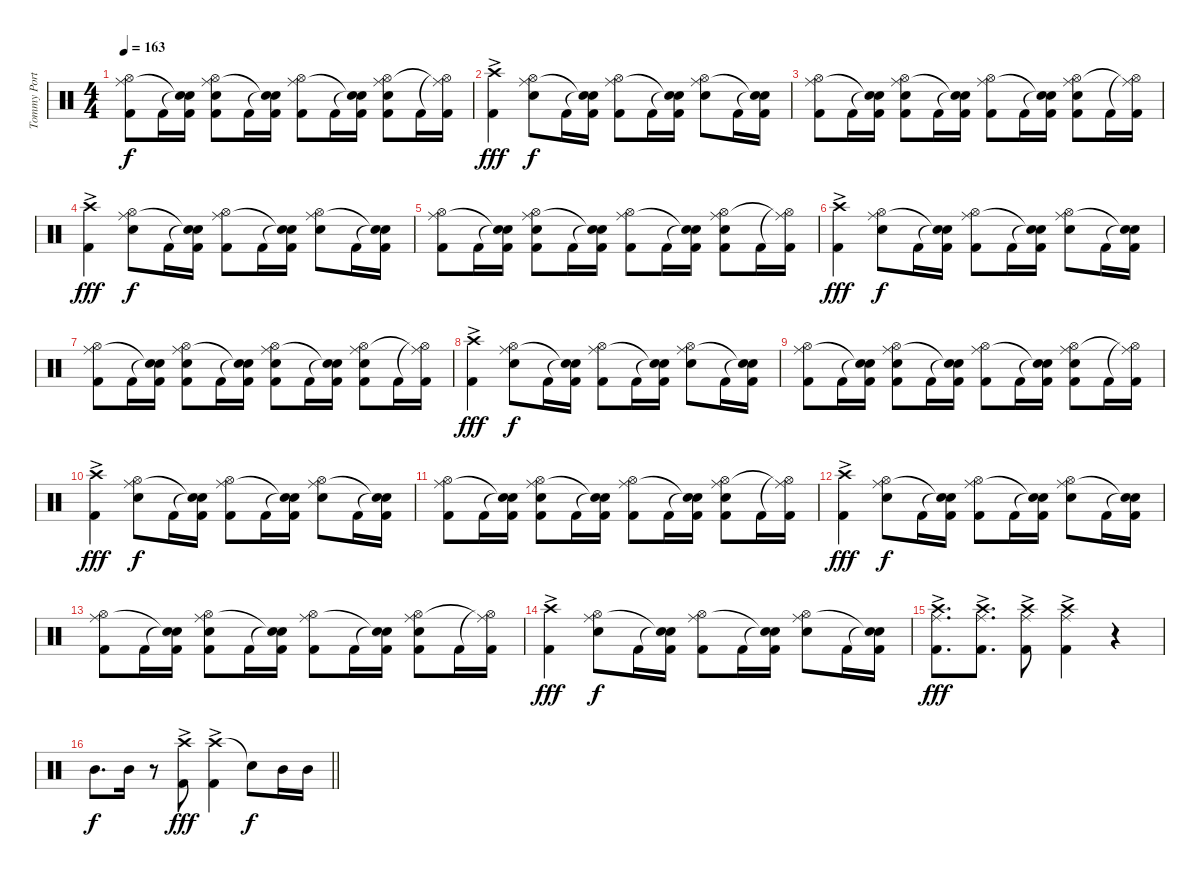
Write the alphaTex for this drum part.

\track ("Tommy Portimo" "Tommy Port") {instrument percussion}
\staff {score}
\articulation defaults
\ts (4 4)
\tempo 163
\clef neutral
\ks c
("Hi-Hat (open)" "Ride (middle)" "Kick (hit) 2").8{dy f} "Kick (hit) 2".16 ("Snare (hit)"{t} "Snare (hit)"{t} "Kick (hit) 2").16 ("Hi-Hat (open)" "Ride (middle)" "Electric Snare (hit)" "Kick (hit) 2").8 "Kick (hit) 2".16 ("Snare (hit)"{t} "Snare (hit)"{t} "Kick (hit) 2").16 ("Hi-Hat (open)" "Ride (middle)" "Kick (hit) 2").8 "Kick (hit) 2".16 ("Snare (hit)"{t} "Snare (hit)"{t} "Kick (hit) 2").16 ("Hi-Hat (open)" "Ride (middle)" "Electric Snare (hit)" "Kick (hit) 2").8 "Kick (hit) 2".16 ("Hi-Hat (open)"{t} "Ride (middle)"{t} "Kick (hit) 2").16 |
("Crash high (hit)"{ac} "Kick (hit) 2").4{dy fff} ("Hi-Hat (open)" "Ride (middle)" "Electric Snare (hit)").8{dy f} "Kick (hit) 2".16 ("Snare (hit)"{t} "Snare (hit)"{t} "Kick (hit) 2").16 ("Hi-Hat (open)" "Ride (middle)" "Kick (hit) 2").8 "Kick (hit) 2".16 ("Snare (hit)"{t} "Snare (hit)"{t} "Kick (hit) 2").16 ("Hi-Hat (open)" "Ride (middle)" "Electric Snare (hit)").8 "Kick (hit) 2".16 ("Snare (hit)"{t} "Snare (hit)"{t} "Kick (hit) 2").16 |
("Hi-Hat (open)" "Ride (middle)" "Kick (hit) 2").8 "Kick (hit) 2".16 ("Snare (hit)"{t} "Snare (hit)"{t} "Kick (hit) 2").16 ("Hi-Hat (open)" "Ride (middle)" "Electric Snare (hit)" "Kick (hit) 2").8 "Kick (hit) 2".16 ("Snare (hit)"{t} "Snare (hit)"{t} "Kick (hit) 2").16 ("Hi-Hat (open)" "Ride (middle)" "Kick (hit) 2").8 "Kick (hit) 2".16 ("Snare (hit)"{t} "Snare (hit)"{t} "Kick (hit) 2").16 ("Hi-Hat (open)" "Ride (middle)" "Electric Snare (hit)" "Kick (hit) 2").8 "Kick (hit) 2".16 ("Hi-Hat (open)"{t} "Ride (middle)"{t} "Kick (hit) 2").16 |
("Crash high (hit)"{ac} "Kick (hit) 2").4{dy fff} ("Hi-Hat (open)" "Ride (middle)" "Electric Snare (hit)").8{dy f} "Kick (hit) 2".16 ("Snare (hit)"{t} "Snare (hit)"{t} "Kick (hit) 2").16 ("Hi-Hat (open)" "Ride (middle)" "Kick (hit) 2").8 "Kick (hit) 2".16 ("Snare (hit)"{t} "Snare (hit)"{t} "Kick (hit) 2").16 ("Hi-Hat (open)" "Ride (middle)" "Electric Snare (hit)").8 "Kick (hit) 2".16 ("Snare (hit)"{t} "Snare (hit)"{t} "Kick (hit) 2").16 |
("Hi-Hat (open)" "Ride (middle)" "Kick (hit) 2").8 "Kick (hit) 2".16 ("Snare (hit)"{t} "Snare (hit)"{t} "Kick (hit) 2").16 ("Hi-Hat (open)" "Ride (middle)" "Electric Snare (hit)" "Kick (hit) 2").8 "Kick (hit) 2".16 ("Snare (hit)"{t} "Snare (hit)"{t} "Kick (hit) 2").16 ("Hi-Hat (open)" "Ride (middle)" "Kick (hit) 2").8 "Kick (hit) 2".16 ("Snare (hit)"{t} "Snare (hit)"{t} "Kick (hit) 2").16 ("Hi-Hat (open)" "Ride (middle)" "Electric Snare (hit)" "Kick (hit) 2").8 "Kick (hit) 2".16 ("Hi-Hat (open)"{t} "Ride (middle)"{t} "Kick (hit) 2").16 |
("Crash high (hit)"{ac} "Kick (hit) 2").4{dy fff} ("Hi-Hat (open)" "Ride (middle)" "Electric Snare (hit)").8{dy f} "Kick (hit) 2".16 ("Snare (hit)"{t} "Snare (hit)"{t} "Kick (hit) 2").16 ("Hi-Hat (open)" "Ride (middle)" "Kick (hit) 2").8 "Kick (hit) 2".16 ("Snare (hit)"{t} "Snare (hit)"{t} "Kick (hit) 2").16 ("Hi-Hat (open)" "Ride (middle)" "Electric Snare (hit)").8 "Kick (hit) 2".16 ("Snare (hit)"{t} "Snare (hit)"{t} "Kick (hit) 2").16 |
("Hi-Hat (open)" "Ride (middle)" "Kick (hit) 2").8 "Kick (hit) 2".16 ("Snare (hit)"{t} "Snare (hit)"{t} "Kick (hit) 2").16 ("Hi-Hat (open)" "Ride (middle)" "Electric Snare (hit)" "Kick (hit) 2").8 "Kick (hit) 2".16 ("Snare (hit)"{t} "Snare (hit)"{t} "Kick (hit) 2").16 ("Hi-Hat (open)" "Ride (middle)" "Electric Snare (hit)" "Kick (hit) 2").8 "Kick (hit) 2".16 ("Snare (hit)"{t} "Snare (hit)"{t} "Kick (hit) 2").16 ("Hi-Hat (open)" "Ride (middle)" "Electric Snare (hit)" "Kick (hit) 2").8 "Kick (hit) 2".16 ("Hi-Hat (open)"{t} "Ride (middle)"{t} "Kick (hit) 2").16 |
("Crash high (hit)"{ac} "Kick (hit) 2").4{dy fff} ("Hi-Hat (open)" "Ride (middle)" "Electric Snare (hit)").8{dy f} "Kick (hit) 2".16 ("Snare (hit)"{t} "Snare (hit)"{t} "Kick (hit) 2").16 ("Hi-Hat (open)" "Ride (middle)" "Kick (hit) 2").8 "Kick (hit) 2".16 ("Snare (hit)"{t} "Snare (hit)"{t} "Kick (hit) 2").16 ("Hi-Hat (open)" "Ride (middle)" "Electric Snare (hit)").8 "Kick (hit) 2".16 ("Snare (hit)"{t} "Snare (hit)"{t} "Kick (hit) 2").16 |
("Hi-Hat (open)" "Ride (middle)" "Kick (hit) 2").8 "Kick (hit) 2".16 ("Snare (hit)"{t} "Snare (hit)"{t} "Kick (hit) 2").16 ("Hi-Hat (open)" "Ride (middle)" "Electric Snare (hit)" "Kick (hit) 2").8 "Kick (hit) 2".16 ("Snare (hit)"{t} "Snare (hit)"{t} "Kick (hit) 2").16 ("Hi-Hat (open)" "Ride (middle)" "Kick (hit) 2").8 "Kick (hit) 2".16 ("Snare (hit)"{t} "Snare (hit)"{t} "Kick (hit) 2").16 ("Hi-Hat (open)" "Ride (middle)" "Electric Snare (hit)" "Kick (hit) 2").8 "Kick (hit) 2".16 ("Hi-Hat (open)"{t} "Ride (middle)"{t} "Kick (hit) 2").16 |
("Crash high (hit)"{ac} "Kick (hit) 2").4{dy fff} ("Hi-Hat (open)" "Ride (middle)" "Electric Snare (hit)").8{dy f} "Kick (hit) 2".16 ("Snare (hit)"{t} "Snare (hit)"{t} "Kick (hit) 2").16 ("Hi-Hat (open)" "Ride (middle)" "Kick (hit) 2").8 "Kick (hit) 2".16 ("Snare (hit)"{t} "Snare (hit)"{t} "Kick (hit) 2").16 ("Hi-Hat (open)" "Ride (middle)" "Electric Snare (hit)").8 "Kick (hit) 2".16 ("Snare (hit)"{t} "Snare (hit)"{t} "Kick (hit) 2").16 |
("Hi-Hat (open)" "Ride (middle)" "Kick (hit) 2").8 "Kick (hit) 2".16 ("Snare (hit)"{t} "Snare (hit)"{t} "Kick (hit) 2").16 ("Hi-Hat (open)" "Ride (middle)" "Electric Snare (hit)" "Kick (hit) 2").8 "Kick (hit) 2".16 ("Snare (hit)"{t} "Snare (hit)"{t} "Kick (hit) 2").16 ("Hi-Hat (open)" "Ride (middle)" "Kick (hit) 2").8 "Kick (hit) 2".16 ("Snare (hit)"{t} "Snare (hit)"{t} "Kick (hit) 2").16 ("Hi-Hat (open)" "Ride (middle)" "Electric Snare (hit)" "Kick (hit) 2").8 "Kick (hit) 2".16 ("Hi-Hat (open)"{t} "Ride (middle)"{t} "Kick (hit) 2").16 |
("Crash high (hit)"{ac} "Kick (hit) 2").4{dy fff} ("Hi-Hat (open)" "Ride (middle)" "Electric Snare (hit)").8{dy f} "Kick (hit) 2".16 ("Snare (hit)"{t} "Snare (hit)"{t} "Kick (hit) 2").16 ("Hi-Hat (open)" "Ride (middle)" "Kick (hit) 2").8 "Kick (hit) 2".16 ("Snare (hit)"{t} "Snare (hit)"{t} "Kick (hit) 2").16 ("Hi-Hat (open)" "Ride (middle)" "Electric Snare (hit)").8 "Kick (hit) 2".16 ("Snare (hit)"{t} "Snare (hit)"{t} "Kick (hit) 2").16 |
("Hi-Hat (open)" "Ride (middle)" "Kick (hit) 2").8 "Kick (hit) 2".16 ("Snare (hit)"{t} "Snare (hit)"{t} "Kick (hit) 2").16 ("Hi-Hat (open)" "Ride (middle)" "Electric Snare (hit)" "Kick (hit) 2").8 "Kick (hit) 2".16 ("Snare (hit)"{t} "Snare (hit)"{t} "Kick (hit) 2").16 ("Hi-Hat (open)" "Ride (middle)" "Kick (hit) 2").8 "Kick (hit) 2".16 ("Snare (hit)"{t} "Snare (hit)"{t} "Kick (hit) 2").16 ("Hi-Hat (open)" "Ride (middle)" "Electric Snare (hit)" "Kick (hit) 2").8 "Kick (hit) 2".16 ("Hi-Hat (open)"{t} "Ride (middle)"{t} "Kick (hit) 2").16 |
("Crash high (hit)"{ac} "Kick (hit) 2").4{dy fff} ("Hi-Hat (open)" "Ride (middle)" "Electric Snare (hit)").8{dy f} "Kick (hit) 2".16 ("Snare (hit)"{t} "Snare (hit)"{t} "Kick (hit) 2").16 ("Hi-Hat (open)" "Ride (middle)" "Kick (hit) 2").8 "Kick (hit) 2".16 ("Snare (hit)"{t} "Snare (hit)"{t} "Kick (hit) 2").16 ("Hi-Hat (open)" "Ride (middle)" "Electric Snare (hit)").8 "Kick (hit) 2".16 ("Snare (hit)"{t} "Snare (hit)"{t} "Kick (hit) 2").16 |
("Crash high (hit)"{ac} "Ride (middle)" "Kick (hit) 2").8{d dy fff} ("Crash high (hit)"{ac} "Ride (middle)" "Kick (hit) 2").8{d} ("Crash high (hit)"{ac} "Ride (middle)" "Kick (hit) 2").8 ("Crash high (hit)"{ac} "Ride (middle)" "Kick (hit) 2").4 r.4 |
\barLineRight lightlight "Mid Tom (hit)".8{d dy f} "Mid Tom (hit)".16
r.8 ("Crash high (hit)"{ac} "Kick (hit) 2").8{dy fff} ("Crash high (hit)"{ac} "Kick (hit) 2").4 "Snare (hit)"{t}.8{dy f} "Mid Tom (hit)".16 "Mid Tom (hit)".16
